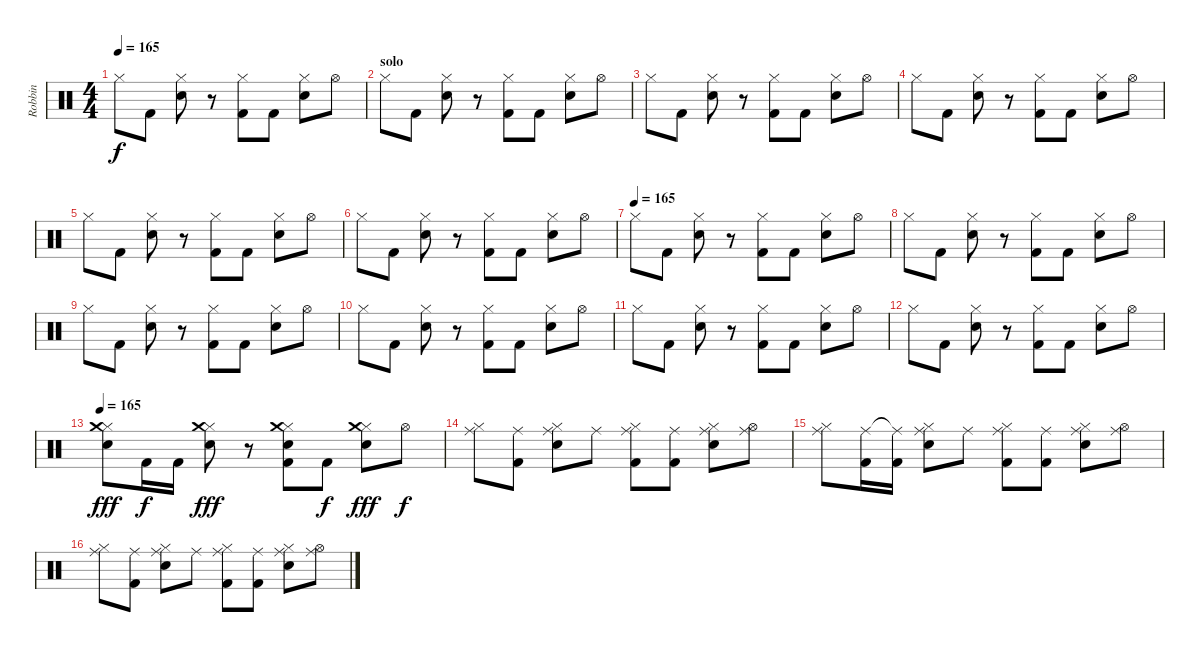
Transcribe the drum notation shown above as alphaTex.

\track ("Robbin" "Robbin") {instrument percussion}
\staff {score}
\articulation defaults
\ts (4 4)
\tempo 165
\clef neutral
\ks c "Hi-Hat (closed)".8{dy f} "Kick (hit) 2".8
("Hi-Hat (closed)" "Snare (hit) 2").8 r.8 ("Hi-Hat (closed)" "Kick (hit) 2").8 "Kick (hit) 2".8 ("Hi-Hat (closed)" "Snare (hit) 2").8 "Hi-Hat (open)".8 |
\section ("" "solo")
"Hi-Hat (closed)".8 "Kick (hit) 2".8 ("Hi-Hat (closed)" "Snare (hit) 2").8 r.8 ("Hi-Hat (closed)" "Kick (hit) 2").8 "Kick (hit) 2".8 ("Hi-Hat (closed)" "Snare (hit) 2").8 "Hi-Hat (open)".8 |
"Hi-Hat (closed)".8 "Kick (hit) 2".8 ("Hi-Hat (closed)" "Snare (hit) 2").8 r.8 ("Hi-Hat (closed)" "Kick (hit) 2").8 "Kick (hit) 2".8 ("Hi-Hat (closed)" "Snare (hit) 2").8 "Hi-Hat (open)".8 |
"Hi-Hat (closed)".8 "Kick (hit) 2".8 ("Hi-Hat (closed)" "Snare (hit) 2").8 r.8 ("Hi-Hat (closed)" "Kick (hit) 2").8 "Kick (hit) 2".8 ("Hi-Hat (closed)" "Snare (hit) 2").8 "Hi-Hat (open)".8 |
"Hi-Hat (closed)".8 "Kick (hit) 2".8 ("Hi-Hat (closed)" "Snare (hit) 2").8 r.8 ("Hi-Hat (closed)" "Kick (hit) 2").8 "Kick (hit) 2".8 ("Hi-Hat (closed)" "Snare (hit) 2").8 "Hi-Hat (open)".8 |
"Hi-Hat (closed)".8 "Kick (hit) 2".8 ("Hi-Hat (closed)" "Snare (hit) 2").8 r.8 ("Hi-Hat (closed)" "Kick (hit) 2").8 "Kick (hit) 2".8 ("Hi-Hat (closed)" "Snare (hit) 2").8 "Hi-Hat (open)".8 |
\tempo (165)
"Hi-Hat (closed)".8 "Kick (hit) 2".8 ("Hi-Hat (closed)" "Snare (hit) 2").8 r.8 ("Hi-Hat (closed)" "Kick (hit) 2").8 "Kick (hit) 2".8 ("Hi-Hat (closed)" "Snare (hit) 2").8 "Hi-Hat (open)".8 |
"Hi-Hat (closed)".8 "Kick (hit) 2".8 ("Hi-Hat (closed)" "Snare (hit) 2").8 r.8 ("Hi-Hat (closed)" "Kick (hit) 2").8 "Kick (hit) 2".8 ("Hi-Hat (closed)" "Snare (hit) 2").8 "Hi-Hat (open)".8 |
"Hi-Hat (closed)".8 "Kick (hit) 2".8 ("Hi-Hat (closed)" "Snare (hit) 2").8 r.8 ("Hi-Hat (closed)" "Kick (hit) 2").8 "Kick (hit) 2".8 ("Hi-Hat (closed)" "Snare (hit) 2").8 "Hi-Hat (open)".8 |
"Hi-Hat (closed)".8 "Kick (hit) 2".8 ("Hi-Hat (closed)" "Snare (hit) 2").8 r.8 ("Hi-Hat (closed)" "Kick (hit) 2").8 "Kick (hit) 2".8 ("Hi-Hat (closed)" "Snare (hit) 2").8 "Hi-Hat (open)".8 |
"Hi-Hat (closed)".8 "Kick (hit) 2".8 ("Hi-Hat (closed)" "Snare (hit) 2").8 r.8 ("Hi-Hat (closed)" "Kick (hit) 2").8 "Kick (hit) 2".8 ("Hi-Hat (closed)" "Snare (hit) 2").8 "Hi-Hat (open)".8 |
"Hi-Hat (closed)".8 "Kick (hit) 2".8 ("Hi-Hat (closed)" "Snare (hit) 2").8 r.8 ("Hi-Hat (closed)" "Kick (hit) 2").8 "Kick (hit) 2".8 ("Hi-Hat (closed)" "Snare (hit) 2").8 "Hi-Hat (open)".8 |
\tempo 165
("Hi-Hat (closed)" "Crash medium (hit)" "Snare (hit) 2").8{dy fff} "Kick (hit) 2".16{dy f} "Kick (hit) 2".16 ("Hi-Hat (closed)" "Crash medium (hit)" "Snare (hit) 2").8{dy fff} r.8 ("Hi-Hat (closed)" "Crash medium (hit)" "Snare (hit) 2" "Kick (hit) 2").8 "Kick (hit) 2".8{dy f} ("Hi-Hat (closed)" "Crash medium (hit)" "Snare (hit) 2").8{dy fff} "Hi-Hat (open)".8{dy f} |
("Hi-Hat (closed)" "Ride (middle)").8 ("Ride (middle)" "Kick (hit) 2").8 ("Hi-Hat (closed)" "Ride (middle)" "Snare (hit) 2").8 "Ride (middle)".8 ("Hi-Hat (closed)" "Ride (middle)" "Kick (hit) 2").8 ("Ride (middle)" "Kick (hit) 2").8 ("Hi-Hat (closed)" "Ride (middle)" "Snare (hit) 2").8 ("Hi-Hat (open)" "Ride (middle)").8 |
("Hi-Hat (closed)" "Ride (middle)").8 ("Ride (middle)" "Kick (hit) 2").16 ("Ride (middle)"{t} "Kick (hit) 2").16 ("Hi-Hat (closed)" "Ride (middle)" "Snare (hit) 2").8 "Ride (middle)".8 ("Hi-Hat (closed)" "Ride (middle)" "Kick (hit) 2").8 ("Ride (middle)" "Kick (hit) 2").8 ("Hi-Hat (closed)" "Ride (middle)" "Snare (hit) 2").8 ("Hi-Hat (open)" "Ride (middle)").8 |
("Hi-Hat (closed)" "Ride (middle)").8 ("Ride (middle)" "Kick (hit) 2").8 ("Hi-Hat (closed)" "Ride (middle)" "Snare (hit) 2").8 "Ride (middle)".8 ("Hi-Hat (closed)" "Ride (middle)" "Kick (hit) 2").8 ("Ride (middle)" "Kick (hit) 2").8 ("Hi-Hat (closed)" "Ride (middle)" "Snare (hit) 2").8 ("Hi-Hat (open)" "Ride (middle)").8
